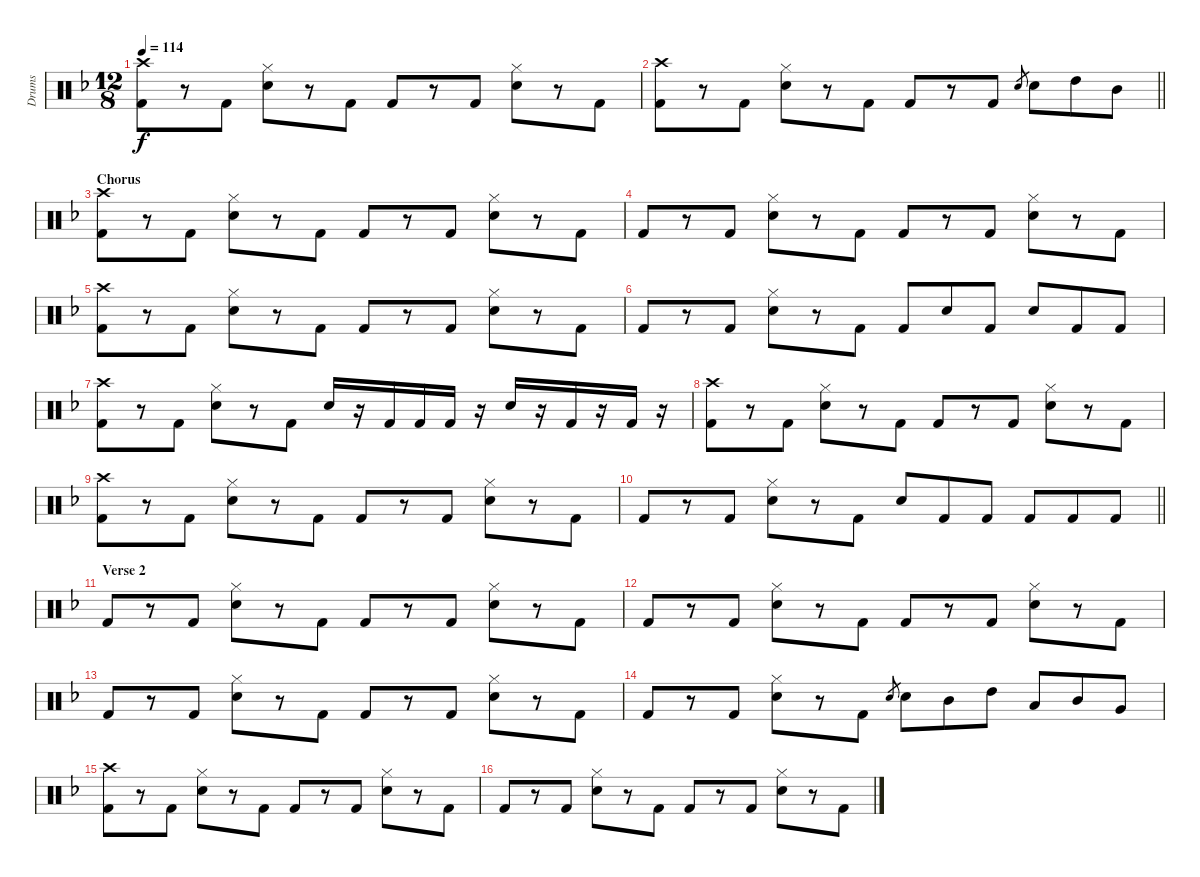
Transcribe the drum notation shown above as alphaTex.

\track ("Drums" "Drums") {instrument percussion}
\staff {score}
\articulation defaults
\ts (12 8)
\tempo 114
\clef neutral
\ks f
("Crash high (hit)" "Kick (hit) 2").8{dy f} r.8 "Kick (hit) 2".8 ("Hi-Hat (closed)" "Electric Snare (hit)").8 r.8 "Kick (hit) 2".8 "Kick (hit) 2".8 r.8 "Kick (hit) 2".8 ("Hi-Hat (closed)" "Electric Snare (hit)").8 r.8 "Kick (hit) 2".8 |
\barLineRight lightlight
("Crash high (hit)" "Kick (hit) 2").8 r.8 "Kick (hit) 2".8 ("Hi-Hat (closed)" "Electric Snare (hit)").8 r.8 "Kick (hit) 2".8 "Kick (hit) 2".8 r.8 "Kick (hit) 2".8 "Electric Snare (hit)".8{gr} "Electric Snare (hit)".8 "High Tom (hit)".8 "Mid Tom (hit)".8 |
\section ("" "Chorus")
("Crash high (hit)" "Kick (hit) 2").8 r.8 "Kick (hit) 2".8 ("Hi-Hat (closed)" "Electric Snare (hit)").8 r.8 "Kick (hit) 2".8 "Kick (hit) 2".8 r.8 "Kick (hit) 2".8 ("Hi-Hat (closed)" "Electric Snare (hit)").8 r.8 "Kick (hit) 2".8 |
"Kick (hit) 2".8 r.8 "Kick (hit) 2".8 ("Hi-Hat (closed)" "Electric Snare (hit)").8 r.8 "Kick (hit) 2".8 "Kick (hit) 2".8 r.8 "Kick (hit) 2".8 ("Hi-Hat (closed)" "Electric Snare (hit)").8 r.8 "Kick (hit) 2".8 |
("Crash high (hit)" "Kick (hit) 2").8 r.8 "Kick (hit) 2".8 ("Hi-Hat (closed)" "Electric Snare (hit)").8 r.8 "Kick (hit) 2".8 "Kick (hit) 2".8 r.8 "Kick (hit) 2".8 ("Hi-Hat (closed)" "Electric Snare (hit)").8 r.8 "Kick (hit) 2".8 |
"Kick (hit) 2".8 r.8 "Kick (hit) 2".8 ("Hi-Hat (closed)" "Electric Snare (hit)").8 r.8 "Kick (hit) 2".8 "Kick (hit) 2".8 "Electric Snare (hit)".8 "Kick (hit) 2".8 "Electric Snare (hit)".8 "Kick (hit) 2".8 "Kick (hit) 2".8 |
("Crash high (hit)" "Kick (hit) 2").8 r.8 "Kick (hit) 2".8 ("Hi-Hat (closed)" "Electric Snare (hit)").8 r.8 "Kick (hit) 2".8 "Electric Snare (hit)".16 r.16 "Kick (hit) 2".16 "Kick (hit) 2".16 "Kick (hit) 2".16 r.16 "Electric Snare (hit)".16 r.16 "Kick (hit) 2".16 r.16 "Kick (hit) 2".16 r.16 |
("Crash high (hit)" "Kick (hit) 2").8 r.8 "Kick (hit) 2".8 ("Hi-Hat (closed)" "Electric Snare (hit)").8 r.8 "Kick (hit) 2".8 "Kick (hit) 2".8 r.8 "Kick (hit) 2".8 ("Hi-Hat (closed)" "Electric Snare (hit)").8 r.8 "Kick (hit) 2".8 |
("Crash high (hit)" "Kick (hit) 2").8 r.8 "Kick (hit) 2".8 ("Hi-Hat (closed)" "Electric Snare (hit)").8 r.8 "Kick (hit) 2".8 "Kick (hit) 2".8 r.8 "Kick (hit) 2".8 ("Hi-Hat (closed)" "Electric Snare (hit)").8 r.8 "Kick (hit) 2".8 |
\barLineRight lightlight "Kick (hit) 2".8
r.8 "Kick (hit) 2".8 ("Hi-Hat (closed)" "Electric Snare (hit)").8 r.8 "Kick (hit) 2".8 "Electric Snare (hit)".8 "Kick (hit) 2".8 "Kick (hit) 2".8 "Kick (hit) 2".8 "Kick (hit) 2".8 "Kick (hit) 2".8 |
\section ("" "Verse 2")
"Kick (hit) 2".8 r.8 "Kick (hit) 2".8 ("Hi-Hat (closed)" "Electric Snare (hit)").8 r.8 "Kick (hit) 2".8 "Kick (hit) 2".8 r.8 "Kick (hit) 2".8 ("Hi-Hat (closed)" "Electric Snare (hit)").8 r.8 "Kick (hit) 2".8 |
"Kick (hit) 2".8 r.8 "Kick (hit) 2".8 ("Hi-Hat (closed)" "Electric Snare (hit)").8 r.8 "Kick (hit) 2".8 "Kick (hit) 2".8 r.8 "Kick (hit) 2".8 ("Hi-Hat (closed)" "Electric Snare (hit)").8 r.8 "Kick (hit) 2".8 |
"Kick (hit) 2".8 r.8 "Kick (hit) 2".8 ("Hi-Hat (closed)" "Electric Snare (hit)").8 r.8 "Kick (hit) 2".8 "Kick (hit) 2".8 r.8 "Kick (hit) 2".8 ("Hi-Hat (closed)" "Electric Snare (hit)").8 r.8 "Kick (hit) 2".8 |
"Kick (hit) 2".8 r.8 "Kick (hit) 2".8 ("Hi-Hat (closed)" "Electric Snare (hit)").8 r.8 "Kick (hit) 2".8 "Electric Snare (hit)".8{gr} "Electric Snare (hit)".8 "Mid Tom (hit)".8 "High Tom (hit)".8 "Low Tom (hit)".8 "Mid Tom (hit)".8 "Very Low Tom (hit)".8 |
("Crash high (hit)" "Kick (hit) 2").8 r.8 "Kick (hit) 2".8 ("Hi-Hat (closed)" "Electric Snare (hit)").8 r.8 "Kick (hit) 2".8 "Kick (hit) 2".8 r.8 "Kick (hit) 2".8 ("Hi-Hat (closed)" "Electric Snare (hit)").8 r.8 "Kick (hit) 2".8 |
"Kick (hit) 2".8 r.8 "Kick (hit) 2".8 ("Hi-Hat (closed)" "Electric Snare (hit)").8 r.8 "Kick (hit) 2".8 "Kick (hit) 2".8 r.8 "Kick (hit) 2".8 ("Hi-Hat (closed)" "Electric Snare (hit)").8 r.8 "Kick (hit) 2".8
